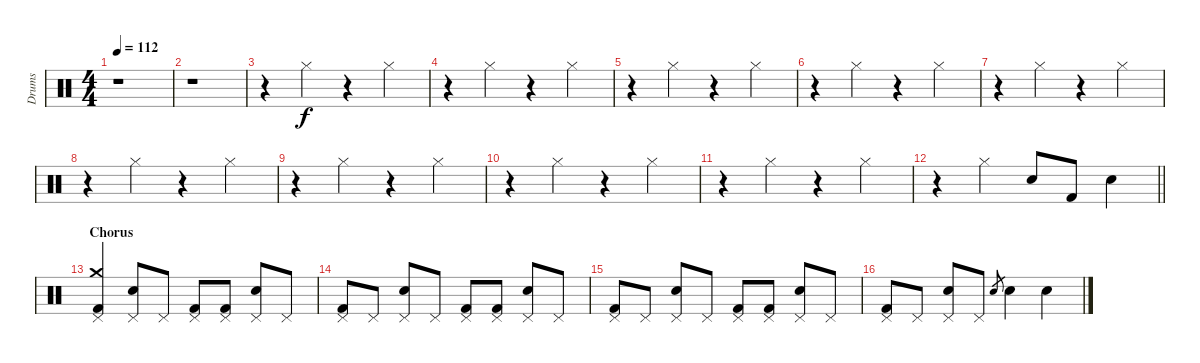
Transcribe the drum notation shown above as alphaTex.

\track ("Drums" "Drums") {instrument percussion}
\staff {score}
\articulation defaults
\ts (4 4)
\tempo 112
\clef neutral
\ks c
r.1{dy f} |
r.1 |
r.4 "Hi-Hat (closed)".4 r.4 "Hi-Hat (closed)".4 |
r.4 "Hi-Hat (closed)".4 r.4 "Hi-Hat (closed)".4 |
r.4 "Hi-Hat (closed)".4 r.4 "Hi-Hat (closed)".4 |
r.4 "Hi-Hat (closed)".4 r.4 "Hi-Hat (closed)".4 |
r.4 "Hi-Hat (closed)".4 r.4 "Hi-Hat (closed)".4 |
r.4 "Hi-Hat (closed)".4 r.4 "Hi-Hat (closed)".4 |
r.4 "Hi-Hat (closed)".4 r.4 "Hi-Hat (closed)".4 |
r.4 "Hi-Hat (closed)".4 r.4 "Hi-Hat (closed)".4 |
r.4 "Hi-Hat (closed)".4 r.4 "Hi-Hat (closed)".4 |
\barLineRight lightlight
r.4 "Hi-Hat (closed)".4 "Electric Snare (hit)".8 "Kick (hit) 2".8 "Electric Snare (hit)".4 |
\section ("" "Chorus")
("Crash medium (hit)" "Pedal Hi-Hat (hit)" "Kick (hit) 2").4 ("Pedal Hi-Hat (hit)" "Electric Snare (hit)").8 "Pedal Hi-Hat (hit)".8 ("Pedal Hi-Hat (hit)" "Kick (hit) 2").8 ("Pedal Hi-Hat (hit)" "Kick (hit) 2").8 ("Pedal Hi-Hat (hit)" "Electric Snare (hit)").8 "Pedal Hi-Hat (hit)".8 |
("Pedal Hi-Hat (hit)" "Kick (hit) 2").8 "Pedal Hi-Hat (hit)".8 ("Pedal Hi-Hat (hit)" "Electric Snare (hit)").8 "Pedal Hi-Hat (hit)".8 ("Pedal Hi-Hat (hit)" "Kick (hit) 2").8 ("Pedal Hi-Hat (hit)" "Kick (hit) 2").8 ("Pedal Hi-Hat (hit)" "Electric Snare (hit)").8 "Pedal Hi-Hat (hit)".8 |
("Pedal Hi-Hat (hit)" "Kick (hit) 2").8 "Pedal Hi-Hat (hit)".8 ("Pedal Hi-Hat (hit)" "Electric Snare (hit)").8 "Pedal Hi-Hat (hit)".8 ("Pedal Hi-Hat (hit)" "Kick (hit) 2").8 ("Pedal Hi-Hat (hit)" "Kick (hit) 2").8 ("Pedal Hi-Hat (hit)" "Electric Snare (hit)").8 "Pedal Hi-Hat (hit)".8 |
("Pedal Hi-Hat (hit)" "Kick (hit) 2").8 "Pedal Hi-Hat (hit)".8 ("Pedal Hi-Hat (hit)" "Electric Snare (hit)").8 "Pedal Hi-Hat (hit)".8 "Electric Snare (hit)".8{gr} "Electric Snare (hit)".4 "Electric Snare (hit)".4
